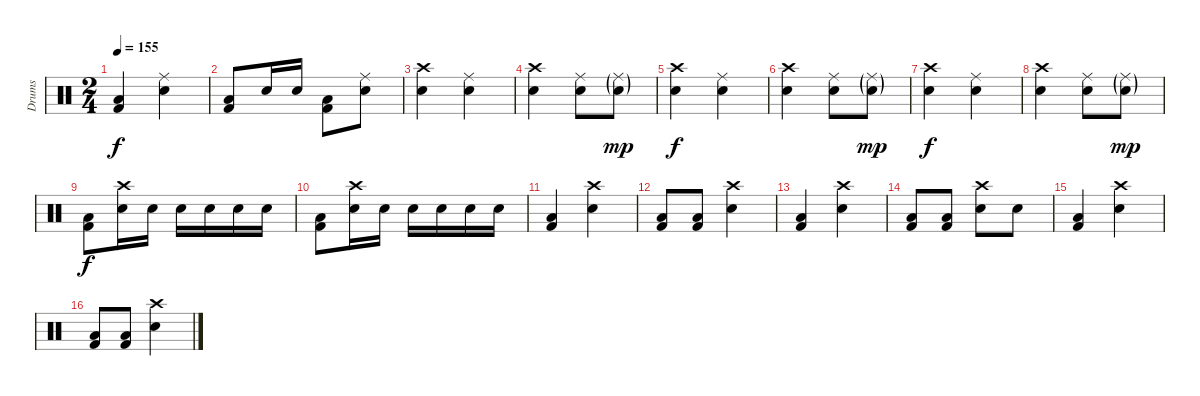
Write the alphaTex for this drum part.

\track ("Drums" "Drums") {instrument percussion}
\staff {score}
\articulation defaults
\ts (2 4)
\tempo 155
\clef neutral
\ks c
("Low Floor Tom (hit)" "Kick (hit) 2").4{dy f} ("Snare (hit) 2" "Ride (middle)").4 |
("Low Floor Tom (hit)" "Kick (hit) 2").8 "Snare (hit) 2".16 "Snare (hit) 2".16 ("Low Floor Tom (hit)" "Kick (hit) 2").8 ("Snare (hit) 2" "Ride (middle)").8 |
("Snare (hit) 2" "Crash high (hit)").4 ("Snare (hit) 2" "Ride (middle)").4 |
("Snare (hit) 2" "Crash high (hit)").4 ("Snare (hit) 2" "Ride (middle)").8 ("Snare (hit) 2"{g} "Ride (middle)"{g}).8{dy mp} |
("Snare (hit) 2" "Crash high (hit)").4{dy f} ("Snare (hit) 2" "Ride (middle)").4 |
("Snare (hit) 2" "Crash high (hit)").4 ("Snare (hit) 2" "Ride (middle)").8 ("Snare (hit) 2"{g} "Ride (middle)"{g}).8{dy mp} |
("Snare (hit) 2" "Crash high (hit)").4{dy f} ("Snare (hit) 2" "Ride (middle)").4 |
("Snare (hit) 2" "Crash high (hit)").4 ("Snare (hit) 2" "Ride (middle)").8 ("Snare (hit) 2"{g} "Ride (middle)"{g}).8{dy mp} |
("Low Floor Tom (hit)" "Kick (hit) 2").8{dy f} ("Snare (hit) 2" "Crash high (hit)").16 "Snare (hit) 2".16 "Snare (hit) 2".16 "Snare (hit) 2".16 "Snare (hit) 2".16 "Snare (hit) 2".16 |
("Low Floor Tom (hit)" "Kick (hit) 2").8 ("Snare (hit) 2" "Crash high (hit)").16 "Snare (hit) 2".16 "Snare (hit) 2".16 "Snare (hit) 2".16 "Snare (hit) 2".16 "Snare (hit) 2".16 |
("Low Floor Tom (hit)" "Kick (hit) 2").4 ("Snare (hit) 2" "Crash high (hit)").4 |
("Low Floor Tom (hit)" "Kick (hit) 2").8 ("Low Floor Tom (hit)" "Kick (hit) 2").8 ("Snare (hit) 2" "Crash high (hit)").4 |
("Low Floor Tom (hit)" "Kick (hit) 2").4 ("Snare (hit) 2" "Crash high (hit)").4 |
("Low Floor Tom (hit)" "Kick (hit) 2").8 ("Low Floor Tom (hit)" "Kick (hit) 2").8 ("Snare (hit) 2" "Crash high (hit)").8 "Snare (hit) 2".8 |
("Low Floor Tom (hit)" "Kick (hit) 2").4 ("Snare (hit) 2" "Crash high (hit)").4 |
("Low Floor Tom (hit)" "Kick (hit) 2").8 ("Low Floor Tom (hit)" "Kick (hit) 2").8 ("Snare (hit) 2" "Crash high (hit)").4
